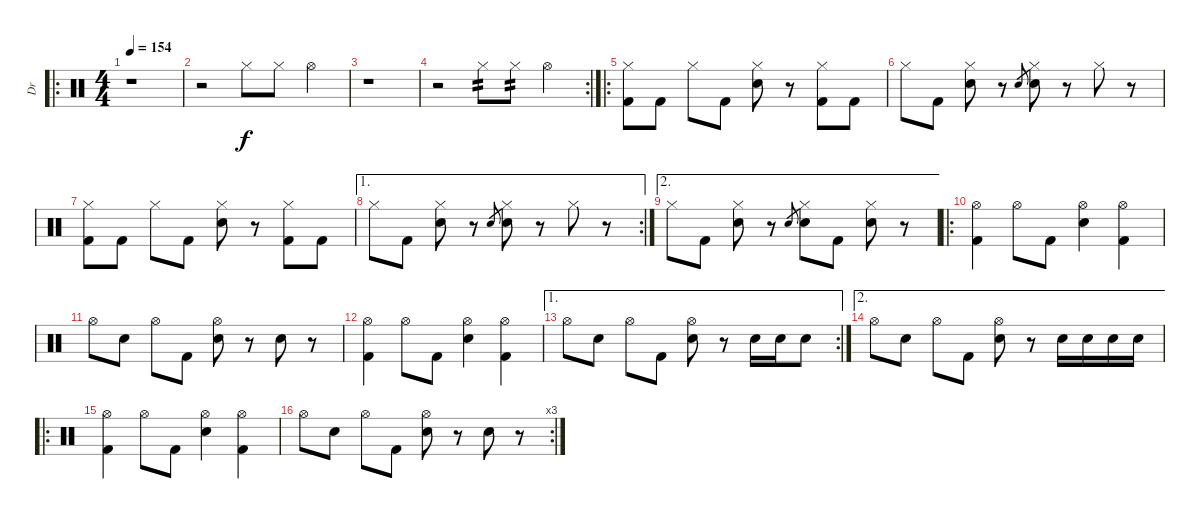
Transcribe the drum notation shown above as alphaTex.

\track ("Dr" "Dr") {instrument percussion}
\staff {score}
\articulation defaults
\ro
\ts (4 4)
\tempo 154
\clef neutral
\ks c
r.1{dy f} |
r.2 "Hi-Hat (closed)".8 "Hi-Hat (closed)".8 "Hi-Hat (open)".4 |
r.1 |
\rc 2
r.2 "Hi-Hat (closed)".8{tp 2} "Hi-Hat (closed)".8{tp 2} "Hi-Hat (open)".4 |
\ro
("Hi-Hat (closed)" "Kick (hit) 2").8 "Kick (hit) 2".8 "Hi-Hat (closed)".8 "Kick (hit) 2".8 ("Hi-Hat (closed)" "Electric Snare (hit)").8 r.8 ("Hi-Hat (closed)" "Kick (hit) 2").8 "Kick (hit) 2".8 |
"Hi-Hat (closed)".8 "Kick (hit) 2".8 ("Hi-Hat (closed)" "Electric Snare (hit)").8 r.8 "Electric Snare (hit)".8{gr} ("Hi-Hat (closed)" "Electric Snare (hit)").8 r.8 "Hi-Hat (closed)".8 r.8 |
("Hi-Hat (closed)" "Kick (hit) 2").8 "Kick (hit) 2".8 "Hi-Hat (closed)".8 "Kick (hit) 2".8 ("Hi-Hat (closed)" "Electric Snare (hit)").8 r.8 ("Hi-Hat (closed)" "Kick (hit) 2").8 "Kick (hit) 2".8 |
\ae 1
\rc 2 "Hi-Hat (closed)".8 "Kick (hit) 2".8
("Hi-Hat (closed)" "Electric Snare (hit)").8 r.8 "Electric Snare (hit)".8{gr} ("Hi-Hat (closed)" "Electric Snare (hit)").8 r.8 "Hi-Hat (closed)".8 r.8 |
\ae 2 "Hi-Hat (closed)".8 "Kick (hit) 2".8
("Hi-Hat (closed)" "Electric Snare (hit)").8 r.8 "Electric Snare (hit)".8{gr} ("Hi-Hat (closed)" "Electric Snare (hit)").8 "Kick (hit) 2".8 ("Hi-Hat (closed)" "Electric Snare (hit)").8 r.8 |
\ro
("Hi-Hat (open)" "Kick (hit) 2").4 "Hi-Hat (open)".8 "Kick (hit) 2".8 ("Hi-Hat (open)" "Electric Snare (hit)").4 ("Hi-Hat (open)" "Kick (hit) 2").4 |
"Hi-Hat (open)".8 "Electric Snare (hit)".8 "Hi-Hat (open)".8 "Kick (hit) 2".8 ("Hi-Hat (open)" "Electric Snare (hit)").8 r.8 "Electric Snare (hit)".8 r.8 |
("Hi-Hat (open)" "Kick (hit) 2").4 "Hi-Hat (open)".8 "Kick (hit) 2".8 ("Hi-Hat (open)" "Electric Snare (hit)").4 ("Hi-Hat (open)" "Kick (hit) 2").4 |
\ae 1
\rc 2 "Hi-Hat (open)".8 "Electric Snare (hit)".8 "Hi-Hat (open)".8 "Kick (hit) 2".8
("Hi-Hat (open)" "Electric Snare (hit)").8 r.8 "Electric Snare (hit)".16 "Electric Snare (hit)".16 "Electric Snare (hit)".8 |
\ae 2 "Hi-Hat (open)".8 "Electric Snare (hit)".8 "Hi-Hat (open)".8 "Kick (hit) 2".8
("Hi-Hat (open)" "Electric Snare (hit)").8 r.8 "Electric Snare (hit)".16 "Electric Snare (hit)".16 "Electric Snare (hit)".16 "Electric Snare (hit)".16 |
\ro
("Hi-Hat (open)" "Kick (hit) 2").4 "Hi-Hat (open)".8 "Kick (hit) 2".8 ("Hi-Hat (open)" "Electric Snare (hit)").4 ("Hi-Hat (open)" "Kick (hit) 2").4 |
\rc 3 "Hi-Hat (open)".8 "Electric Snare (hit)".8 "Hi-Hat (open)".8 "Kick (hit) 2".8
("Hi-Hat (open)" "Electric Snare (hit)").8 r.8 "Electric Snare (hit)".8 r.8
